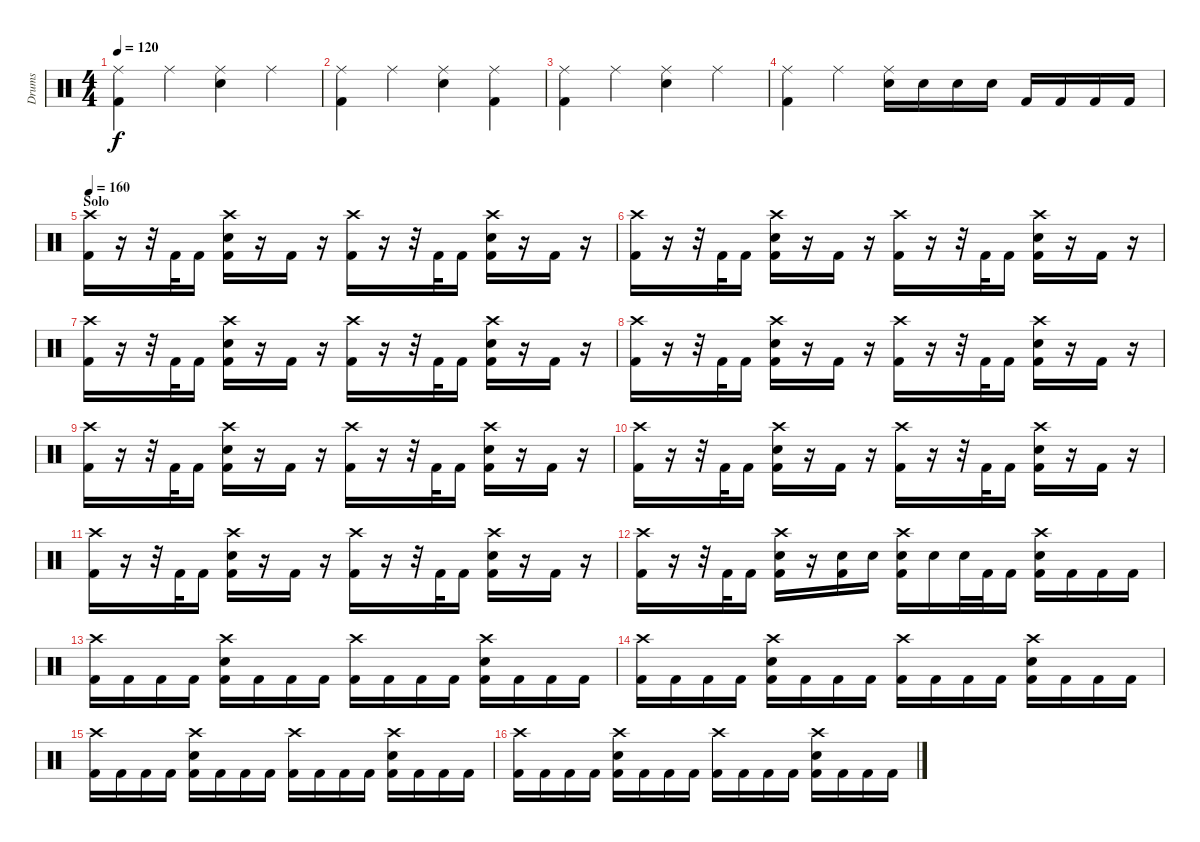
\track ("Drums" "Drums") {instrument percussion}
\staff {score}
\articulation defaults
\ts (4 4)
\tempo 120
\clef neutral
\ks c
("Ride (middle)" "Kick (hit) 2").4{dy f} "Ride (middle)".4 ("Ride (middle)" "Electric Snare (hit)").4 "Ride (middle)".4 |
("Ride (middle)" "Kick (hit) 2").4 "Ride (middle)".4 ("Ride (middle)" "Electric Snare (hit)").4 ("Ride (middle)" "Kick (hit) 2").4 |
("Ride (middle)" "Kick (hit) 2").4 "Ride (middle)".4 ("Ride (middle)" "Electric Snare (hit)").4 "Ride (middle)".4 |
("Ride (middle)" "Kick (hit) 2").4 "Ride (middle)".4 ("Ride (middle)" "Electric Snare (hit)").16 "Electric Snare (hit)".16 "Electric Snare (hit)".16 "Electric Snare (hit)".16 "Kick (hit) 2".16 "Kick (hit) 2".16 "Kick (hit) 2".16 "Kick (hit) 2".16 |
\section ("" "Solo")
\tempo 160
("Crash high (hit)" "Kick (hit) 2").16 r.16 r.32 "Kick (hit) 2".32 "Kick (hit) 2".16 ("Crash high (hit)" "Electric Snare (hit)" "Kick (hit) 2").16 r.16 "Kick (hit) 2".16 r.16 ("Crash high (hit)" "Kick (hit) 2").16 r.16 r.32 "Kick (hit) 2".32 "Kick (hit) 2".16 ("Crash high (hit)" "Electric Snare (hit)" "Kick (hit) 2").16 r.16 "Kick (hit) 2".16 r.16 |
("Crash high (hit)" "Kick (hit) 2").16 r.16 r.32 "Kick (hit) 2".32 "Kick (hit) 2".16 ("Crash high (hit)" "Electric Snare (hit)" "Kick (hit) 2").16 r.16 "Kick (hit) 2".16 r.16 ("Crash high (hit)" "Kick (hit) 2").16 r.16 r.32 "Kick (hit) 2".32 "Kick (hit) 2".16 ("Crash high (hit)" "Electric Snare (hit)" "Kick (hit) 2").16 r.16 "Kick (hit) 2".16 r.16 |
("Crash high (hit)" "Kick (hit) 2").16 r.16 r.32 "Kick (hit) 2".32 "Kick (hit) 2".16 ("Crash high (hit)" "Electric Snare (hit)" "Kick (hit) 2").16 r.16 "Kick (hit) 2".16 r.16 ("Crash high (hit)" "Kick (hit) 2").16 r.16 r.32 "Kick (hit) 2".32 "Kick (hit) 2".16 ("Crash high (hit)" "Electric Snare (hit)" "Kick (hit) 2").16 r.16 "Kick (hit) 2".16 r.16 |
("Crash high (hit)" "Kick (hit) 2").16 r.16 r.32 "Kick (hit) 2".32 "Kick (hit) 2".16 ("Crash high (hit)" "Electric Snare (hit)" "Kick (hit) 2").16 r.16 "Kick (hit) 2".16 r.16 ("Crash high (hit)" "Kick (hit) 2").16 r.16 r.32 "Kick (hit) 2".32 "Kick (hit) 2".16 ("Crash high (hit)" "Electric Snare (hit)" "Kick (hit) 2").16 r.16 "Kick (hit) 2".16 r.16 |
("Crash high (hit)" "Kick (hit) 2").16 r.16 r.32 "Kick (hit) 2".32 "Kick (hit) 2".16 ("Crash high (hit)" "Electric Snare (hit)" "Kick (hit) 2").16 r.16 "Kick (hit) 2".16 r.16 ("Crash high (hit)" "Kick (hit) 2").16 r.16 r.32 "Kick (hit) 2".32 "Kick (hit) 2".16 ("Crash high (hit)" "Electric Snare (hit)" "Kick (hit) 2").16 r.16 "Kick (hit) 2".16 r.16 |
("Crash high (hit)" "Kick (hit) 2").16 r.16 r.32 "Kick (hit) 2".32 "Kick (hit) 2".16 ("Crash high (hit)" "Electric Snare (hit)" "Kick (hit) 2").16 r.16 "Kick (hit) 2".16 r.16 ("Crash high (hit)" "Kick (hit) 2").16 r.16 r.32 "Kick (hit) 2".32 "Kick (hit) 2".16 ("Crash high (hit)" "Electric Snare (hit)" "Kick (hit) 2").16 r.16 "Kick (hit) 2".16 r.16 |
("Crash high (hit)" "Kick (hit) 2").16 r.16 r.32 "Kick (hit) 2".32 "Kick (hit) 2".16 ("Crash high (hit)" "Electric Snare (hit)" "Kick (hit) 2").16 r.16 "Kick (hit) 2".16 r.16 ("Crash high (hit)" "Kick (hit) 2").16 r.16 r.32 "Kick (hit) 2".32 "Kick (hit) 2".16 ("Crash high (hit)" "Electric Snare (hit)" "Kick (hit) 2").16 r.16 "Kick (hit) 2".16 r.16 |
("Crash high (hit)" "Kick (hit) 2").16 r.16 r.32 "Kick (hit) 2".32 "Kick (hit) 2".16 ("Crash high (hit)" "Electric Snare (hit)" "Kick (hit) 2").16 r.16 ("Electric Snare (hit)" "Kick (hit) 2").16 "Electric Snare (hit)".16 ("Crash high (hit)" "Electric Snare (hit)" "Kick (hit) 2").16 "Electric Snare (hit)".16 "Electric Snare (hit)".32 "Kick (hit) 2".32 "Kick (hit) 2".16 ("Crash high (hit)" "Electric Snare (hit)" "Kick (hit) 2").16 "Kick (hit) 2".16 "Kick (hit) 2".16 "Kick (hit) 2".16 |
("Crash high (hit)" "Kick (hit) 2").16 "Kick (hit) 2".16 "Kick (hit) 2".16 "Kick (hit) 2".16 ("Crash high (hit)" "Electric Snare (hit)" "Kick (hit) 2").16 "Kick (hit) 2".16 "Kick (hit) 2".16 "Kick (hit) 2".16 ("Crash high (hit)" "Kick (hit) 2").16 "Kick (hit) 2".16 "Kick (hit) 2".16 "Kick (hit) 2".16 ("Crash high (hit)" "Electric Snare (hit)" "Kick (hit) 2").16 "Kick (hit) 2".16 "Kick (hit) 2".16 "Kick (hit) 2".16 |
("Crash high (hit)" "Kick (hit) 2").16 "Kick (hit) 2".16 "Kick (hit) 2".16 "Kick (hit) 2".16 ("Crash high (hit)" "Electric Snare (hit)" "Kick (hit) 2").16 "Kick (hit) 2".16 "Kick (hit) 2".16 "Kick (hit) 2".16 ("Crash high (hit)" "Kick (hit) 2").16 "Kick (hit) 2".16 "Kick (hit) 2".16 "Kick (hit) 2".16 ("Crash high (hit)" "Electric Snare (hit)" "Kick (hit) 2").16 "Kick (hit) 2".16 "Kick (hit) 2".16 "Kick (hit) 2".16 |
("Crash high (hit)" "Kick (hit) 2").16 "Kick (hit) 2".16 "Kick (hit) 2".16 "Kick (hit) 2".16 ("Crash high (hit)" "Electric Snare (hit)" "Kick (hit) 2").16 "Kick (hit) 2".16 "Kick (hit) 2".16 "Kick (hit) 2".16 ("Crash high (hit)" "Kick (hit) 2").16 "Kick (hit) 2".16 "Kick (hit) 2".16 "Kick (hit) 2".16 ("Crash high (hit)" "Electric Snare (hit)" "Kick (hit) 2").16 "Kick (hit) 2".16 "Kick (hit) 2".16 "Kick (hit) 2".16 |
("Crash high (hit)" "Kick (hit) 2").16 "Kick (hit) 2".16 "Kick (hit) 2".16 "Kick (hit) 2".16 ("Crash high (hit)" "Electric Snare (hit)" "Kick (hit) 2").16 "Kick (hit) 2".16 "Kick (hit) 2".16 "Kick (hit) 2".16 ("Crash high (hit)" "Kick (hit) 2").16 "Kick (hit) 2".16 "Kick (hit) 2".16 "Kick (hit) 2".16 ("Crash high (hit)" "Electric Snare (hit)" "Kick (hit) 2").16 "Kick (hit) 2".16 "Kick (hit) 2".16 "Kick (hit) 2".16
